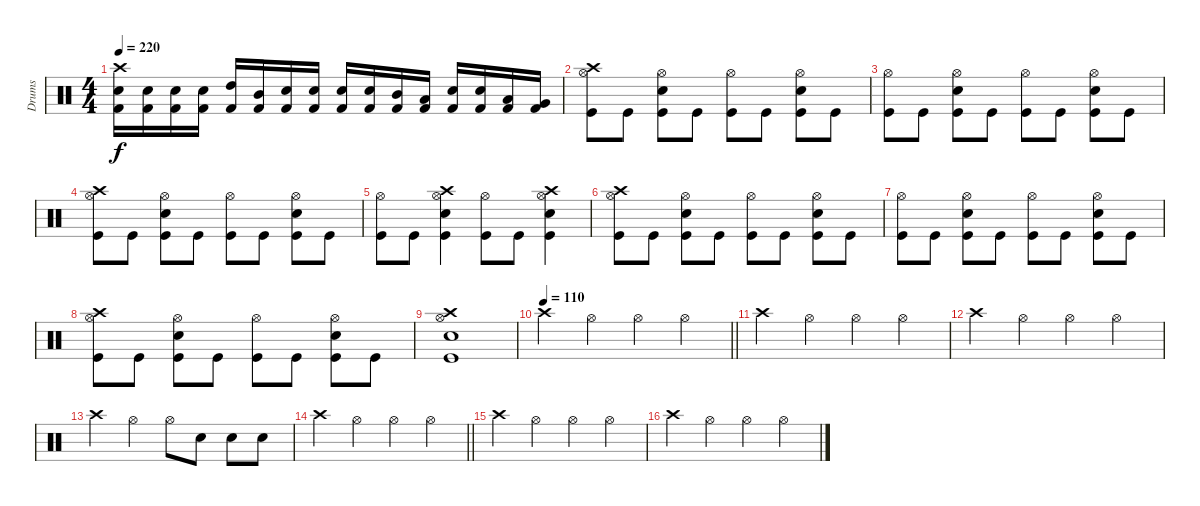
\track ("Drums" "Drums") {instrument percussion}
\staff {score}
\articulation defaults
\ts (4 4)
\tempo 220
\clef neutral
\ks c
("Kick (hit) 2" "Snare (hit) 2" "Crash high (hit)").16{dy f} ("Kick (hit) 2" "Snare (hit) 2").16 ("Kick (hit) 2" "Snare (hit) 2").16 ("Kick (hit) 2" "Snare (hit) 2").16 ("Kick (hit) 2" "High Tom (hit)").16 ("Kick (hit) 2" "Mid Tom (hit)").16 ("Kick (hit) 2" "Snare (hit) 2").16 ("Kick (hit) 2" "Snare (hit) 2").16 ("Kick (hit) 2" "Snare (hit) 2").16 ("Kick (hit) 2" "Snare (hit) 2").16 ("Kick (hit) 2" "Mid Tom (hit)").16 ("Kick (hit) 2" "Low Tom (hit)").16 ("Kick (hit) 2" "Snare (hit) 2").16 ("Kick (hit) 2" "Snare (hit) 2").16 ("Kick (hit) 2" "Low Tom (hit)").16 ("Kick (hit) 2" "Very Low Tom (hit)").16 |
("Crash high (hit)" "Hi-Hat (open)" "Kick (hit)").8 "Kick (hit)".8 ("Electric Snare (hit)" "Hi-Hat (open)" "Kick (hit)").8 "Kick (hit)".8 ("Hi-Hat (open)" "Kick (hit)").8 "Kick (hit)".8 ("Electric Snare (hit)" "Hi-Hat (open)" "Kick (hit)").8 "Kick (hit)".8 |
("Hi-Hat (open)" "Kick (hit)").8 "Kick (hit)".8 ("Electric Snare (hit)" "Hi-Hat (open)" "Kick (hit)").8 "Kick (hit)".8 ("Hi-Hat (open)" "Kick (hit)").8 "Kick (hit)".8 ("Electric Snare (hit)" "Hi-Hat (open)" "Kick (hit)").8 "Kick (hit)".8 |
("Crash high (hit)" "Hi-Hat (open)" "Kick (hit)").8 "Kick (hit)".8 ("Electric Snare (hit)" "Hi-Hat (open)" "Kick (hit)").8 "Kick (hit)".8 ("Hi-Hat (open)" "Kick (hit)").8 "Kick (hit)".8 ("Electric Snare (hit)" "Hi-Hat (open)" "Kick (hit)").8 "Kick (hit)".8 |
("Hi-Hat (open)" "Kick (hit)").8 "Kick (hit)".8 ("Crash high (hit)" "Electric Snare (hit)" "Hi-Hat (open)" "Kick (hit)").4 ("Hi-Hat (open)" "Kick (hit)").8 "Kick (hit)".8 ("Crash high (hit)" "Electric Snare (hit)" "Hi-Hat (open)" "Kick (hit)").4 |
("Crash high (hit)" "Hi-Hat (open)" "Kick (hit)").8 "Kick (hit)".8 ("Electric Snare (hit)" "Hi-Hat (open)" "Kick (hit)").8 "Kick (hit)".8 ("Hi-Hat (open)" "Kick (hit)").8 "Kick (hit)".8 ("Electric Snare (hit)" "Hi-Hat (open)" "Kick (hit)").8 "Kick (hit)".8 |
("Hi-Hat (open)" "Kick (hit)").8 "Kick (hit)".8 ("Electric Snare (hit)" "Hi-Hat (open)" "Kick (hit)").8 "Kick (hit)".8 ("Hi-Hat (open)" "Kick (hit)").8 "Kick (hit)".8 ("Electric Snare (hit)" "Hi-Hat (open)" "Kick (hit)").8 "Kick (hit)".8 |
("Crash high (hit)" "Hi-Hat (open)" "Kick (hit)").8 "Kick (hit)".8 ("Electric Snare (hit)" "Hi-Hat (open)" "Kick (hit)").8 "Kick (hit)".8 ("Hi-Hat (open)" "Kick (hit)").8 "Kick (hit)".8 ("Electric Snare (hit)" "Hi-Hat (open)" "Kick (hit)").8 "Kick (hit)".8 |
("Crash high (hit)" "Electric Snare (hit)" "Hi-Hat (open)" "Kick (hit)").1 |
\tempo 110
\barLineRight lightlight "Crash high (hit)".4 "Hi-Hat (open)".4 "Hi-Hat (open)".4 "Hi-Hat (open)".4
|
"Crash high (hit)".4 "Hi-Hat (open)".4 "Hi-Hat (open)".4 "Hi-Hat (open)".4 |
"Crash high (hit)".4 "Hi-Hat (open)".4 "Hi-Hat (open)".4 "Hi-Hat (open)".4 |
"Crash high (hit)".4 "Hi-Hat (open)".4 "Hi-Hat (open)".8 "Electric Snare (hit)".8 "Electric Snare (hit)".8 "Electric Snare (hit)".8 |
\barLineRight lightlight "Crash high (hit)".4 "Hi-Hat (open)".4 "Hi-Hat (open)".4 "Hi-Hat (open)".4
|
"Crash high (hit)".4 "Hi-Hat (open)".4 "Hi-Hat (open)".4 "Hi-Hat (open)".4 |
"Crash high (hit)".4 "Hi-Hat (open)".4 "Hi-Hat (open)".4 "Hi-Hat (open)".4
